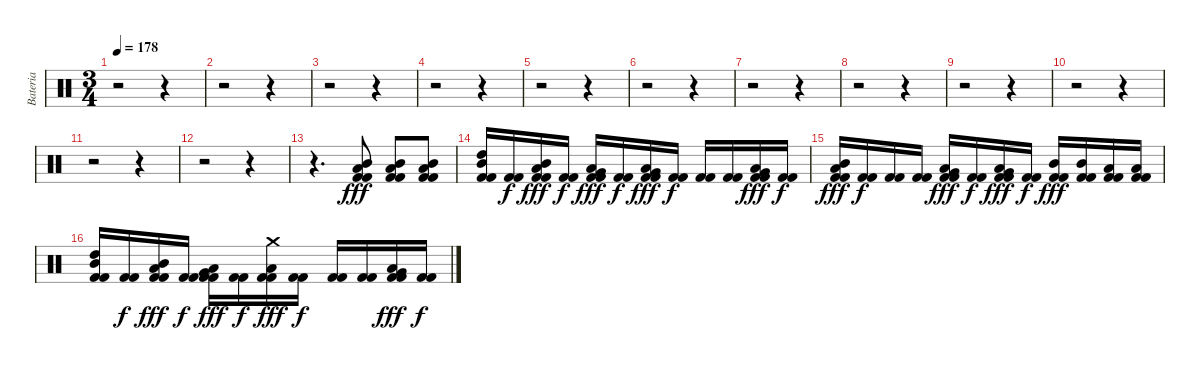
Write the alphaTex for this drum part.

\track ("Bateria" "Bateria") {instrument percussion}
\staff {score}
\articulation defaults
\ts (3 4)
\tempo 178
\clef neutral
\ks c
r.2{dy fff} r.4 |
r.2 r.4 |
r.2 r.4 |
r.2 r.4 |
r.2 r.4 |
r.2 r.4 |
r.2 r.4 |
r.2 r.4 |
r.2 r.4 |
r.2 r.4 |
r.2 r.4 |
r.2 r.4 |
r.4{d} ("Kick (hit) 2" "Kick (hit) 2" "Low Tom (hit)" "Mid Tom (hit)").8 ("Kick (hit) 2" "Kick (hit) 2" "Low Tom (hit)" "Mid Tom (hit)").8 ("Kick (hit) 2" "Kick (hit) 2" "Low Tom (hit)" "Mid Tom (hit)").8 |
("Kick (hit) 2" "Kick (hit) 2" "High Tom (hit)" "Mid Tom (hit)").16 ("Kick (hit) 2" "Kick (hit) 2").16{dy f} ("Kick (hit) 2" "Kick (hit) 2" "Mid Tom (hit)" "Low Tom (hit)").16{dy fff} ("Kick (hit) 2" "Kick (hit) 2").16{dy f} ("Kick (hit) 2" "Kick (hit) 2" "Low Tom (hit)" "Very Low Tom (hit)").16{dy fff} ("Kick (hit) 2" "Kick (hit) 2").16{dy f} ("Kick (hit) 2" "Kick (hit) 2" "Very Low Tom (hit)" "Low Floor Tom (hit)").16{dy fff} ("Kick (hit) 2" "Kick (hit) 2").16{dy f} ("Kick (hit) 2" "Kick (hit) 2").16 ("Kick (hit) 2" "Kick (hit) 2").16 ("Kick (hit) 2" "Kick (hit) 2" "Very Low Tom (hit)" "Low Tom (hit)").16{dy fff} ("Kick (hit) 2" "Kick (hit) 2").16{dy f} |
("Kick (hit) 2" "Kick (hit) 2" "Low Tom (hit)" "Mid Tom (hit)").16{dy fff} ("Kick (hit) 2" "Kick (hit) 2").16{dy f} ("Kick (hit) 2" "Kick (hit) 2").16 ("Kick (hit) 2" "Kick (hit) 2").16 ("Kick (hit) 2" "Kick (hit) 2" "Very Low Tom (hit)" "Low Tom (hit)").16{dy fff} ("Kick (hit) 2" "Kick (hit) 2").16{dy f} ("Kick (hit) 2" "Kick (hit) 2" "Low Floor Tom (hit)" "Very Low Tom (hit)").16{dy fff} ("Kick (hit) 2" "Kick (hit) 2").16{dy f} ("Kick (hit) 2" "Kick (hit) 2" "Mid Tom (hit)").16{dy fff} ("Kick (hit) 2" "Kick (hit) 2" "Mid Tom (hit)").16 ("Kick (hit) 2" "Kick (hit) 2" "Low Tom (hit)").16 ("Kick (hit) 2" "Kick (hit) 2" "Low Tom (hit)").16 |
("Kick (hit) 2" "Kick (hit) 2" "High Tom (hit)" "Mid Tom (hit)").16 ("Kick (hit) 2" "Kick (hit) 2").16{dy f} ("Kick (hit) 2" "Kick (hit) 2" "Mid Tom (hit)" "Low Tom (hit)").16{dy fff} ("Kick (hit) 2" "Kick (hit) 2").16{dy f} ("Kick (hit) 2" "Kick (hit) 2" "Low Tom (hit)" "Very Low Tom (hit)").16{dy fff} ("Kick (hit) 2" "Kick (hit) 2").16{dy f} ("Kick (hit) 2" "Kick (hit) 2" "Low Floor Tom (hit)" "Crash medium (hit)").16{dy fff} ("Kick (hit) 2" "Kick (hit) 2").16{dy f} ("Kick (hit) 2" "Kick (hit) 2").16 ("Kick (hit) 2" "Kick (hit) 2").16 ("Kick (hit) 2" "Kick (hit) 2" "Very Low Tom (hit)" "Low Tom (hit)").16{dy fff} ("Kick (hit) 2" "Kick (hit) 2").16{dy f}
